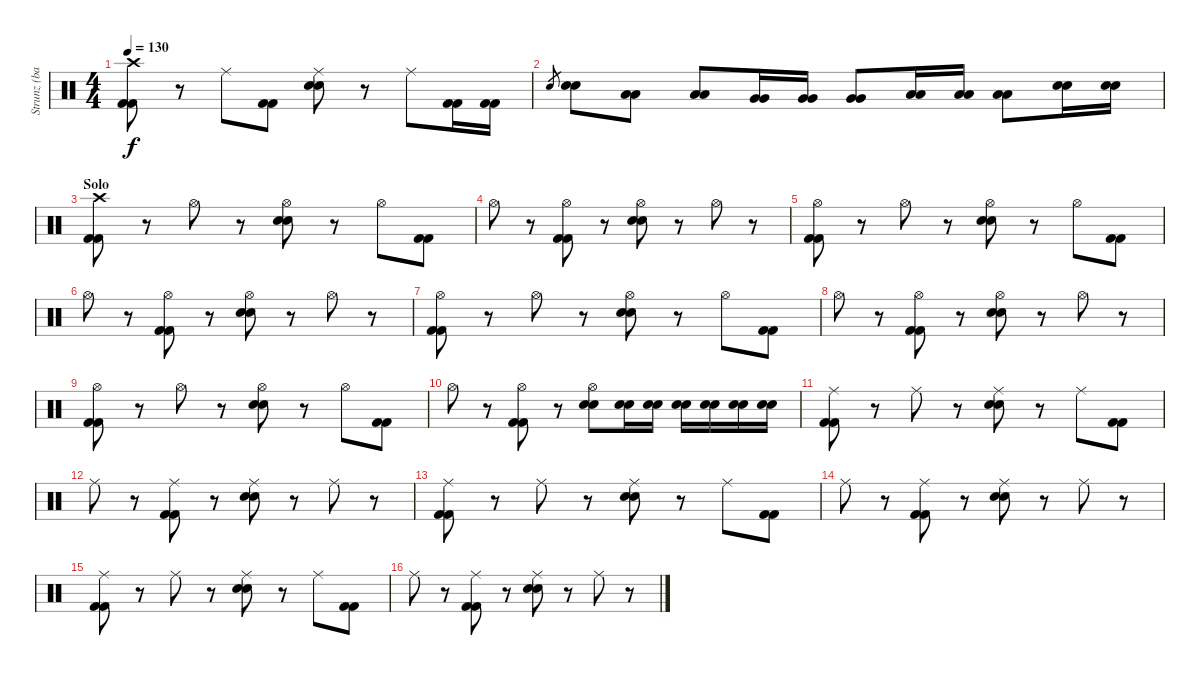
\track ("Strunz (bateria)" "Strunz (ba") {instrument percussion}
\staff {score}
\articulation defaults
\ts (4 4)
\tempo 130
\clef neutral
\ks c
("Crash high (hit)" "Kick (hit) 2" "Kick (hit) 2").8{dy f} r.8 "Ride (middle)".8 ("Kick (hit) 2" "Kick (hit) 2").8 ("Ride (middle)" "Snare (hit) 2" "Snare (hit) 2").8 r.8 "Ride (middle)".8 ("Kick (hit) 2" "Kick (hit) 2").16 ("Kick (hit) 2" "Kick (hit) 2").16 |
"Snare (hit) 2".8{gr} ("Snare (hit) 2" "Snare (hit) 2").8 ("Low Tom (hit)" "Low Tom (hit)").8 ("Low Tom (hit)" "Low Tom (hit)").8 ("Very Low Tom (hit)" "Very Low Tom (hit)").16 ("Very Low Tom (hit)" "Very Low Tom (hit)").16 ("Very Low Tom (hit)" "Very Low Tom (hit)").8 ("Low Floor Tom (hit)" "Low Floor Tom (hit)").16 ("Low Floor Tom (hit)" "Low Floor Tom (hit)").16 ("Low Floor Tom (hit)" "Low Floor Tom (hit)").8 ("Snare (hit) 2" "Snare (hit) 2").16 ("Snare (hit) 2" "Snare (hit) 2").16 |
\section ("" "Solo")
("Crash high (hit)" "Kick (hit) 2" "Kick (hit) 2").8 r.8 "Hi-Hat (open)".8 r.8 ("Hi-Hat (open)" "Snare (hit) 2" "Snare (hit) 2").8 r.8 "Hi-Hat (open)".8 ("Kick (hit) 2" "Kick (hit) 2").8 |
"Hi-Hat (open)".8 r.8 ("Hi-Hat (open)" "Kick (hit) 2" "Kick (hit) 2").8 r.8 ("Hi-Hat (open)" "Snare (hit) 2" "Snare (hit) 2").8 r.8 "Hi-Hat (open)".8 r.8 |
("Hi-Hat (open)" "Kick (hit) 2" "Kick (hit) 2").8 r.8 "Hi-Hat (open)".8 r.8 ("Hi-Hat (open)" "Snare (hit) 2" "Snare (hit) 2").8 r.8 "Hi-Hat (open)".8 ("Kick (hit) 2" "Kick (hit) 2").8 |
"Hi-Hat (open)".8 r.8 ("Hi-Hat (open)" "Kick (hit) 2" "Kick (hit) 2").8 r.8 ("Hi-Hat (open)" "Snare (hit) 2" "Snare (hit) 2").8 r.8 "Hi-Hat (open)".8 r.8 |
("Hi-Hat (open)" "Kick (hit) 2" "Kick (hit) 2").8 r.8 "Hi-Hat (open)".8 r.8 ("Hi-Hat (open)" "Snare (hit) 2" "Snare (hit) 2").8 r.8 "Hi-Hat (open)".8 ("Kick (hit) 2" "Kick (hit) 2").8 |
"Hi-Hat (open)".8 r.8 ("Hi-Hat (open)" "Kick (hit) 2" "Kick (hit) 2").8 r.8 ("Hi-Hat (open)" "Snare (hit) 2" "Snare (hit) 2").8 r.8 "Hi-Hat (open)".8 r.8 |
("Hi-Hat (open)" "Kick (hit) 2" "Kick (hit) 2").8 r.8 "Hi-Hat (open)".8 r.8 ("Hi-Hat (open)" "Snare (hit) 2" "Snare (hit) 2").8 r.8 "Hi-Hat (open)".8 ("Kick (hit) 2" "Kick (hit) 2").8 |
"Hi-Hat (open)".8 r.8 ("Hi-Hat (open)" "Kick (hit) 2" "Kick (hit) 2").8 r.8 ("Hi-Hat (open)" "Snare (hit) 2" "Snare (hit) 2").8 ("Snare (hit) 2" "Snare (hit) 2").16 ("Snare (hit) 2" "Snare (hit) 2").16 ("Snare (hit) 2" "Snare (hit) 2").16 ("Snare (hit) 2" "Snare (hit) 2").16 ("Snare (hit) 2" "Snare (hit) 2").16 ("Snare (hit) 2" "Snare (hit) 2").16 |
("Ride (middle)" "Kick (hit) 2" "Kick (hit) 2").8 r.8 "Ride (middle)".8 r.8 ("Ride (middle)" "Snare (hit) 2" "Snare (hit) 2").8 r.8 "Ride (middle)".8 ("Kick (hit) 2" "Kick (hit) 2").8 |
"Ride (middle)".8 r.8 ("Ride (middle)" "Kick (hit) 2" "Kick (hit) 2").8 r.8 ("Ride (middle)" "Snare (hit) 2" "Snare (hit) 2").8 r.8 "Ride (middle)".8 r.8 |
("Ride (middle)" "Kick (hit) 2" "Kick (hit) 2").8 r.8 "Ride (middle)".8 r.8 ("Ride (middle)" "Snare (hit) 2" "Snare (hit) 2").8 r.8 "Ride (middle)".8 ("Kick (hit) 2" "Kick (hit) 2").8 |
"Ride (middle)".8 r.8 ("Ride (middle)" "Kick (hit) 2" "Kick (hit) 2").8 r.8 ("Ride (middle)" "Snare (hit) 2" "Snare (hit) 2").8 r.8 "Ride (middle)".8 r.8 |
("Ride (middle)" "Kick (hit) 2" "Kick (hit) 2").8 r.8 "Ride (middle)".8 r.8 ("Ride (middle)" "Snare (hit) 2" "Snare (hit) 2").8 r.8 "Ride (middle)".8 ("Kick (hit) 2" "Kick (hit) 2").8 |
"Ride (middle)".8 r.8 ("Ride (middle)" "Kick (hit) 2" "Kick (hit) 2").8 r.8 ("Ride (middle)" "Snare (hit) 2" "Snare (hit) 2").8 r.8 "Ride (middle)".8 r.8
